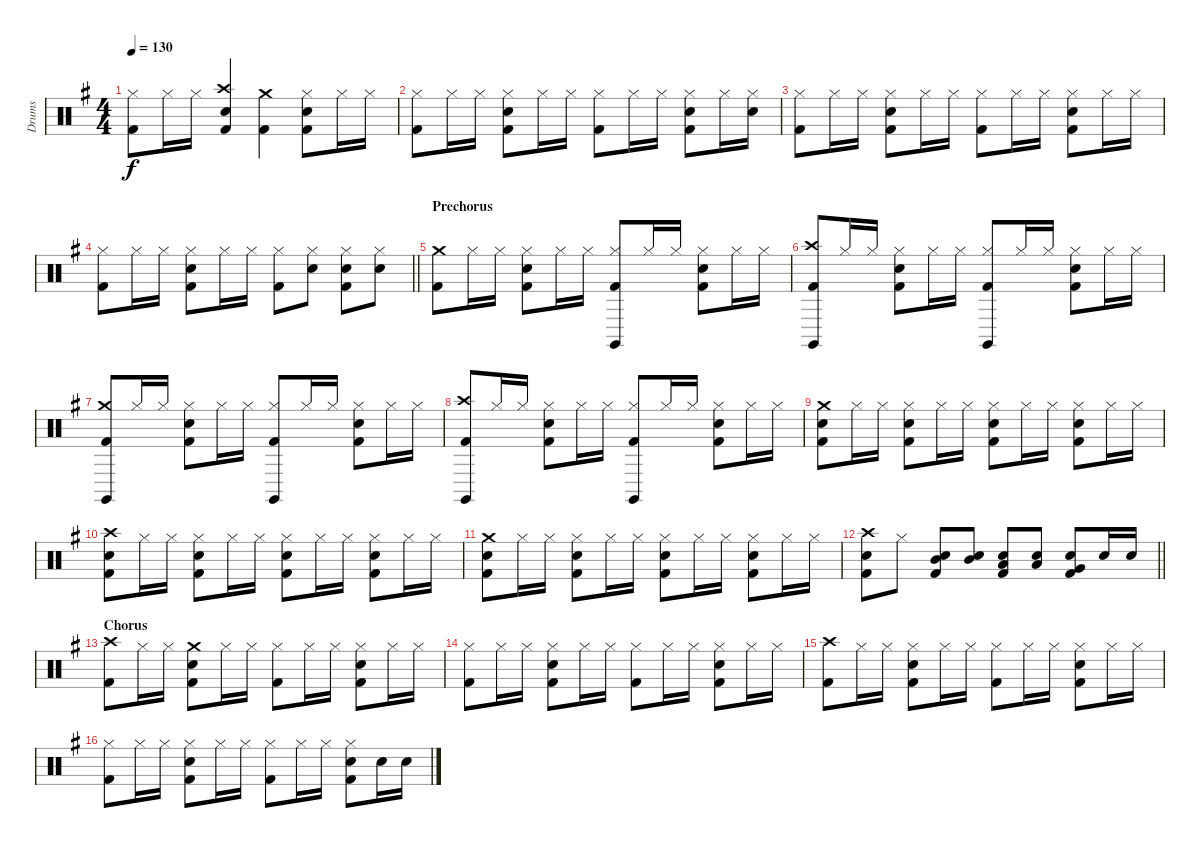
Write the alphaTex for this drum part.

\track ("Drums" "Drums") {instrument percussion}
\staff {score}
\articulation defaults
\ts (4 4)
\tempo 130
\clef neutral
\ks g
("Hi-Hat (closed)" "Kick (hit) 2").8{dy f} "Hi-Hat (closed)".16 "Hi-Hat (closed)".16 ("Crash high (hit)" "Electric Snare (hit)" "Kick (hit) 2").4 ("Crash medium (hit)" "Kick (hit) 2").4 ("Hi-Hat (closed)" "Electric Snare (hit)" "Kick (hit) 2").8 "Hi-Hat (closed)".16 "Hi-Hat (closed)".16 |
("Hi-Hat (closed)" "Kick (hit) 2").8 "Hi-Hat (closed)".16 "Hi-Hat (closed)".16 ("Hi-Hat (closed)" "Electric Snare (hit)" "Kick (hit) 2").8 "Hi-Hat (closed)".16 "Hi-Hat (closed)".16 ("Hi-Hat (closed)" "Kick (hit) 2").8 "Hi-Hat (closed)".16 "Hi-Hat (closed)".16 ("Hi-Hat (closed)" "Electric Snare (hit)" "Kick (hit) 2").8 "Hi-Hat (closed)".16 ("Hi-Hat (closed)" "Electric Snare (hit)").16 |
("Hi-Hat (closed)" "Kick (hit) 2").8 "Hi-Hat (closed)".16 "Hi-Hat (closed)".16 ("Hi-Hat (closed)" "Electric Snare (hit)" "Kick (hit) 2").8 "Hi-Hat (closed)".16 "Hi-Hat (closed)".16 ("Hi-Hat (closed)" "Kick (hit) 2").8 "Hi-Hat (closed)".16 "Hi-Hat (closed)".16 ("Hi-Hat (closed)" "Electric Snare (hit)" "Kick (hit) 2").8 "Hi-Hat (closed)".16 "Hi-Hat (closed)".16 |
\barLineRight lightlight
("Hi-Hat (closed)" "Kick (hit) 2").8 "Hi-Hat (closed)".16 "Hi-Hat (closed)".16 ("Hi-Hat (closed)" "Electric Snare (hit)" "Kick (hit) 2").8 "Hi-Hat (closed)".16 "Hi-Hat (closed)".16 ("Hi-Hat (closed)" "Kick (hit) 2").8 ("Hi-Hat (closed)" "Electric Snare (hit)").8 ("Hi-Hat (closed)" "Electric Snare (hit)" "Kick (hit) 2").8 ("Hi-Hat (closed)" "Electric Snare (hit)").8 |
\section ("" "Prechorus")
("Crash medium (hit)" "Kick (hit) 2").8 "Hi-Hat (closed)".16 "Hi-Hat (closed)".16 ("Hi-Hat (closed)" "Electric Snare (hit)" "Kick (hit) 2").8 "Hi-Hat (closed)".16 "Hi-Hat (closed)".16 ("Hi-Hat (closed)" "Claves (hit)" "Kick (hit) 2").8 "Hi-Hat (closed)".16 "Hi-Hat (closed)".16 ("Hi-Hat (closed)" "Electric Snare (hit)" "Kick (hit) 2").8 "Hi-Hat (closed)".16 "Hi-Hat (closed)".16 |
("Crash high (hit)" "Claves (hit)" "Kick (hit) 2").8 "Hi-Hat (closed)".16 "Hi-Hat (closed)".16 ("Hi-Hat (closed)" "Electric Snare (hit)" "Kick (hit) 2").8 "Hi-Hat (closed)".16 "Hi-Hat (closed)".16 ("Hi-Hat (closed)" "Claves (hit)" "Kick (hit) 2").8 "Hi-Hat (closed)".16 "Hi-Hat (closed)".16 ("Hi-Hat (closed)" "Electric Snare (hit)" "Kick (hit) 2").8 "Hi-Hat (closed)".16 "Hi-Hat (closed)".16 |
("Crash medium (hit)" "Claves (hit)" "Kick (hit) 2").8 "Hi-Hat (closed)".16 "Hi-Hat (closed)".16 ("Hi-Hat (closed)" "Electric Snare (hit)" "Kick (hit) 2").8 "Hi-Hat (closed)".16 "Hi-Hat (closed)".16 ("Hi-Hat (closed)" "Claves (hit)" "Kick (hit) 2").8 "Hi-Hat (closed)".16 "Hi-Hat (closed)".16 ("Hi-Hat (closed)" "Electric Snare (hit)" "Kick (hit) 2").8 "Hi-Hat (closed)".16 "Hi-Hat (closed)".16 |
("Crash high (hit)" "Claves (hit)" "Kick (hit) 2").8 "Hi-Hat (closed)".16 "Hi-Hat (closed)".16 ("Hi-Hat (closed)" "Electric Snare (hit)" "Kick (hit) 2").8 "Hi-Hat (closed)".16 "Hi-Hat (closed)".16 ("Hi-Hat (closed)" "Claves (hit)" "Kick (hit) 2").8 "Hi-Hat (closed)".16 "Hi-Hat (closed)".16 ("Hi-Hat (closed)" "Electric Snare (hit)" "Kick (hit) 2").8 "Hi-Hat (closed)".16 "Hi-Hat (closed)".16 |
("Crash medium (hit)" "Electric Snare (hit)" "Kick (hit) 2").8 "Hi-Hat (closed)".16 "Hi-Hat (closed)".16 ("Hi-Hat (closed)" "Electric Snare (hit)" "Kick (hit) 2").8 "Hi-Hat (closed)".16 "Hi-Hat (closed)".16 ("Hi-Hat (closed)" "Electric Snare (hit)" "Kick (hit) 2").8 "Hi-Hat (closed)".16 "Hi-Hat (closed)".16 ("Hi-Hat (closed)" "Electric Snare (hit)" "Kick (hit) 2").8 "Hi-Hat (closed)".16 "Hi-Hat (closed)".16 |
("Crash high (hit)" "Electric Snare (hit)" "Kick (hit) 2").8 "Hi-Hat (closed)".16 "Hi-Hat (closed)".16 ("Hi-Hat (closed)" "Electric Snare (hit)" "Kick (hit) 2").8 "Hi-Hat (closed)".16 "Hi-Hat (closed)".16 ("Hi-Hat (closed)" "Electric Snare (hit)" "Kick (hit) 2").8 "Hi-Hat (closed)".16 "Hi-Hat (closed)".16 ("Hi-Hat (closed)" "Electric Snare (hit)" "Kick (hit) 2").8 "Hi-Hat (closed)".16 "Hi-Hat (closed)".16 |
("Crash medium (hit)" "Electric Snare (hit)" "Kick (hit) 2").8 "Hi-Hat (closed)".16 "Hi-Hat (closed)".16 ("Hi-Hat (closed)" "Electric Snare (hit)" "Kick (hit) 2").8 "Hi-Hat (closed)".16 "Hi-Hat (closed)".16 ("Hi-Hat (closed)" "Electric Snare (hit)" "Kick (hit) 2").8 "Hi-Hat (closed)".16 "Hi-Hat (closed)".16 ("Hi-Hat (closed)" "Electric Snare (hit)" "Kick (hit) 2").8 "Hi-Hat (closed)".16 "Hi-Hat (closed)".16 |
\barLineRight lightlight
("Crash high (hit)" "Electric Snare (hit)" "Kick (hit) 2").8 "Hi-Hat (closed)".8 ("Electric Snare (hit)" "Mid Tom (hit)" "Kick (hit) 2").8 ("Electric Snare (hit)" "Mid Tom (hit)").8 ("Electric Snare (hit)" "Low Tom (hit)" "Kick (hit) 2").8 ("Electric Snare (hit)" "Low Tom (hit)").8 ("Electric Snare (hit)" "Very Low Tom (hit)" "Kick (hit) 2").8 "Electric Snare (hit)".16 "Electric Snare (hit)".16 |
\section ("" "Chorus")
("Crash high (hit)" "Kick (hit) 2").8 "Hi-Hat (closed)".16 "Hi-Hat (closed)".16 ("Crash medium (hit)" "Electric Snare (hit)" "Kick (hit) 2").8 "Hi-Hat (closed)".16 "Hi-Hat (closed)".16 ("Hi-Hat (closed)" "Kick (hit) 2").8 "Hi-Hat (closed)".16 "Hi-Hat (closed)".16 ("Hi-Hat (closed)" "Electric Snare (hit)" "Kick (hit) 2").8 "Hi-Hat (closed)".16 "Hi-Hat (closed)".16 |
("Hi-Hat (closed)" "Kick (hit) 2").8 "Hi-Hat (closed)".16 "Hi-Hat (closed)".16 ("Hi-Hat (closed)" "Electric Snare (hit)" "Kick (hit) 2").8 "Hi-Hat (closed)".16 "Hi-Hat (closed)".16 ("Hi-Hat (closed)" "Kick (hit) 2").8 "Hi-Hat (closed)".16 "Hi-Hat (closed)".16 ("Hi-Hat (closed)" "Electric Snare (hit)" "Kick (hit) 2").8 "Hi-Hat (closed)".16 "Hi-Hat (closed)".16 |
("Crash high (hit)" "Kick (hit) 2").8 "Hi-Hat (closed)".16 "Hi-Hat (closed)".16 ("Hi-Hat (closed)" "Electric Snare (hit)" "Kick (hit) 2").8 "Hi-Hat (closed)".16 "Hi-Hat (closed)".16 ("Hi-Hat (closed)" "Kick (hit) 2").8 "Hi-Hat (closed)".16 "Hi-Hat (closed)".16 ("Hi-Hat (closed)" "Electric Snare (hit)" "Kick (hit) 2").8 "Hi-Hat (closed)".16 "Hi-Hat (closed)".16 |
("Hi-Hat (closed)" "Kick (hit) 2").8 "Hi-Hat (closed)".16 "Hi-Hat (closed)".16 ("Hi-Hat (closed)" "Electric Snare (hit)" "Kick (hit) 2").8 "Hi-Hat (closed)".16 "Hi-Hat (closed)".16 ("Hi-Hat (closed)" "Kick (hit) 2").8 "Hi-Hat (closed)".16 "Hi-Hat (closed)".16 ("Hi-Hat (closed)" "Electric Snare (hit)" "Kick (hit) 2").8 "Electric Snare (hit)".16 "Electric Snare (hit)".16
